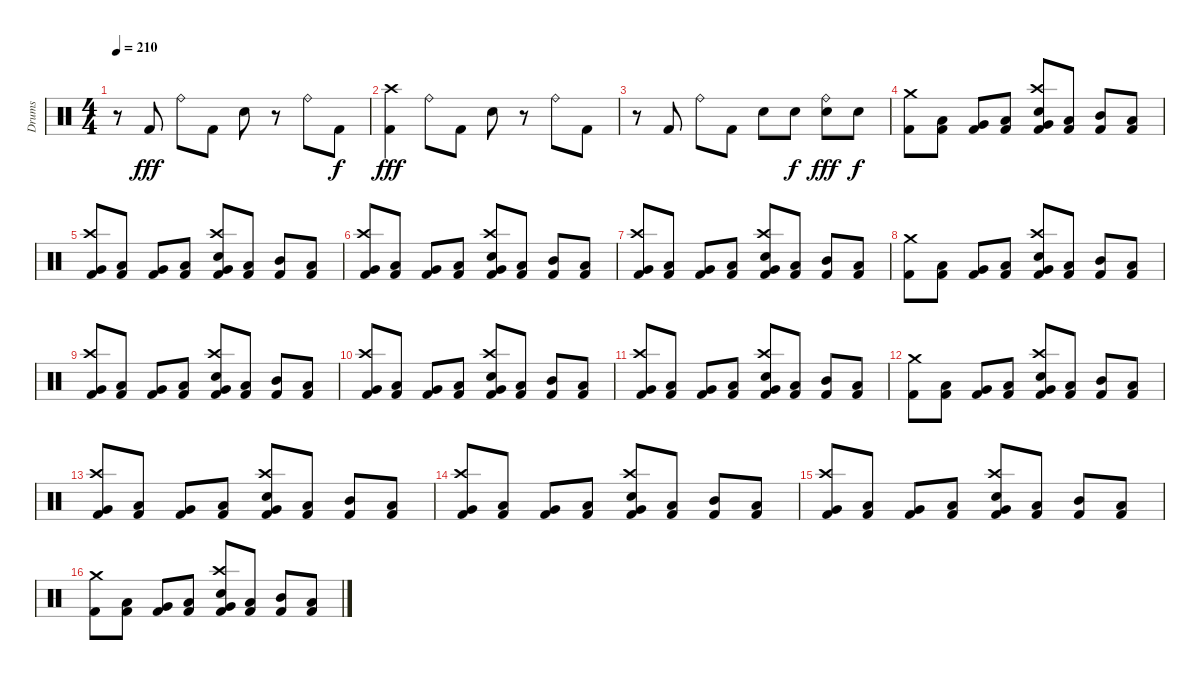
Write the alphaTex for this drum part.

\track ("Drums" "Drums") {instrument percussion}
\staff {score}
\articulation defaults
\ts (4 4)
\tempo 210
\clef neutral
\ks c
r.8{dy fff} "Kick (hit) 2".8 "Ride (bell)".8 "Kick (hit) 2".8 "Electric Snare (hit)".8 r.8 "Ride (bell)".8 "Kick (hit) 2".8{dy f} |
("Crash high (hit)" "Kick (hit) 2").4{dy fff} "Ride (bell)".8 "Kick (hit) 2".8 "Electric Snare (hit)".8 r.8 "Ride (bell)".8 "Kick (hit) 2".8 |
r.8 "Kick (hit) 2".8 "Ride (bell)".8 "Kick (hit) 2".8 "Electric Snare (hit)".8 "Electric Snare (hit)".8{dy f} ("Ride (bell)" "Electric Snare (hit)").8{dy fff} "Electric Snare (hit)".8{dy f} |
("Crash medium (hit)" "Kick (hit) 2").8 ("Low Tom (hit)" "Kick (hit) 2").8 ("Very Low Tom (hit)" "Kick (hit) 2").8 ("Low Floor Tom (hit)" "Kick (hit) 2").8 ("Crash high (hit)" "Very Low Tom (hit)" "Electric Snare (hit)" "Kick (hit) 2").8 ("Low Tom (hit)" "Kick (hit) 2").8 ("Mid Tom (hit)" "Kick (hit) 2").8 ("Low Tom (hit)" "Kick (hit) 2").8 |
("Crash high (hit)" "Very Low Tom (hit)" "Kick (hit) 2").8 ("Low Tom (hit)" "Kick (hit) 2").8 ("Very Low Tom (hit)" "Kick (hit) 2").8 ("Low Floor Tom (hit)" "Kick (hit) 2").8 ("Crash high (hit)" "Very Low Tom (hit)" "Electric Snare (hit)" "Kick (hit) 2").8 ("Low Tom (hit)" "Kick (hit) 2").8 ("Mid Tom (hit)" "Kick (hit) 2").8 ("Low Tom (hit)" "Kick (hit) 2").8 |
("Crash high (hit)" "Very Low Tom (hit)" "Kick (hit) 2").8 ("Low Tom (hit)" "Kick (hit) 2").8 ("Very Low Tom (hit)" "Kick (hit) 2").8 ("Low Floor Tom (hit)" "Kick (hit) 2").8 ("Crash high (hit)" "Very Low Tom (hit)" "Electric Snare (hit)" "Kick (hit) 2").8 ("Low Tom (hit)" "Kick (hit) 2").8 ("Mid Tom (hit)" "Kick (hit) 2").8 ("Low Tom (hit)" "Kick (hit) 2").8 |
("Crash high (hit)" "Very Low Tom (hit)" "Kick (hit) 2").8 ("Low Tom (hit)" "Kick (hit) 2").8 ("Very Low Tom (hit)" "Kick (hit) 2").8 ("Low Floor Tom (hit)" "Kick (hit) 2").8 ("Crash high (hit)" "Very Low Tom (hit)" "Electric Snare (hit)" "Kick (hit) 2").8 ("Low Tom (hit)" "Kick (hit) 2").8 ("Mid Tom (hit)" "Kick (hit) 2").8 ("Low Tom (hit)" "Kick (hit) 2").8 |
("Crash medium (hit)" "Kick (hit) 2").8 ("Low Tom (hit)" "Kick (hit) 2").8 ("Very Low Tom (hit)" "Kick (hit) 2").8 ("Low Floor Tom (hit)" "Kick (hit) 2").8 ("Crash high (hit)" "Very Low Tom (hit)" "Electric Snare (hit)" "Kick (hit) 2").8 ("Low Tom (hit)" "Kick (hit) 2").8 ("Mid Tom (hit)" "Kick (hit) 2").8 ("Low Tom (hit)" "Kick (hit) 2").8 |
("Crash high (hit)" "Very Low Tom (hit)" "Kick (hit) 2").8 ("Low Tom (hit)" "Kick (hit) 2").8 ("Very Low Tom (hit)" "Kick (hit) 2").8 ("Low Floor Tom (hit)" "Kick (hit) 2").8 ("Crash high (hit)" "Very Low Tom (hit)" "Electric Snare (hit)" "Kick (hit) 2").8 ("Low Tom (hit)" "Kick (hit) 2").8 ("Mid Tom (hit)" "Kick (hit) 2").8 ("Low Tom (hit)" "Kick (hit) 2").8 |
("Crash high (hit)" "Very Low Tom (hit)" "Kick (hit) 2").8 ("Low Tom (hit)" "Kick (hit) 2").8 ("Very Low Tom (hit)" "Kick (hit) 2").8 ("Low Floor Tom (hit)" "Kick (hit) 2").8 ("Crash high (hit)" "Very Low Tom (hit)" "Electric Snare (hit)" "Kick (hit) 2").8 ("Low Tom (hit)" "Kick (hit) 2").8 ("Mid Tom (hit)" "Kick (hit) 2").8 ("Low Tom (hit)" "Kick (hit) 2").8 |
("Crash high (hit)" "Very Low Tom (hit)" "Kick (hit) 2").8 ("Low Tom (hit)" "Kick (hit) 2").8 ("Very Low Tom (hit)" "Kick (hit) 2").8 ("Low Floor Tom (hit)" "Kick (hit) 2").8 ("Crash high (hit)" "Very Low Tom (hit)" "Electric Snare (hit)" "Kick (hit) 2").8 ("Low Tom (hit)" "Kick (hit) 2").8 ("Mid Tom (hit)" "Kick (hit) 2").8 ("Low Tom (hit)" "Kick (hit) 2").8 |
("Crash medium (hit)" "Kick (hit) 2").8 ("Low Tom (hit)" "Kick (hit) 2").8 ("Very Low Tom (hit)" "Kick (hit) 2").8 ("Low Floor Tom (hit)" "Kick (hit) 2").8 ("Crash high (hit)" "Very Low Tom (hit)" "Electric Snare (hit)" "Kick (hit) 2").8 ("Low Tom (hit)" "Kick (hit) 2").8 ("Mid Tom (hit)" "Kick (hit) 2").8 ("Low Tom (hit)" "Kick (hit) 2").8 |
("Crash high (hit)" "Very Low Tom (hit)" "Kick (hit) 2").8 ("Low Tom (hit)" "Kick (hit) 2").8 ("Very Low Tom (hit)" "Kick (hit) 2").8 ("Low Floor Tom (hit)" "Kick (hit) 2").8 ("Crash high (hit)" "Very Low Tom (hit)" "Electric Snare (hit)" "Kick (hit) 2").8 ("Low Tom (hit)" "Kick (hit) 2").8 ("Mid Tom (hit)" "Kick (hit) 2").8 ("Low Tom (hit)" "Kick (hit) 2").8 |
("Crash high (hit)" "Very Low Tom (hit)" "Kick (hit) 2").8 ("Low Tom (hit)" "Kick (hit) 2").8 ("Very Low Tom (hit)" "Kick (hit) 2").8 ("Low Floor Tom (hit)" "Kick (hit) 2").8 ("Crash high (hit)" "Very Low Tom (hit)" "Electric Snare (hit)" "Kick (hit) 2").8 ("Low Tom (hit)" "Kick (hit) 2").8 ("Mid Tom (hit)" "Kick (hit) 2").8 ("Low Tom (hit)" "Kick (hit) 2").8 |
("Crash high (hit)" "Very Low Tom (hit)" "Kick (hit) 2").8 ("Low Tom (hit)" "Kick (hit) 2").8 ("Very Low Tom (hit)" "Kick (hit) 2").8 ("Low Floor Tom (hit)" "Kick (hit) 2").8 ("Crash high (hit)" "Very Low Tom (hit)" "Electric Snare (hit)" "Kick (hit) 2").8 ("Low Tom (hit)" "Kick (hit) 2").8 ("Mid Tom (hit)" "Kick (hit) 2").8 ("Low Tom (hit)" "Kick (hit) 2").8 |
("Crash medium (hit)" "Kick (hit) 2").8 ("Low Tom (hit)" "Kick (hit) 2").8 ("Very Low Tom (hit)" "Kick (hit) 2").8 ("Low Floor Tom (hit)" "Kick (hit) 2").8 ("Crash high (hit)" "Very Low Tom (hit)" "Electric Snare (hit)" "Kick (hit) 2").8 ("Low Tom (hit)" "Kick (hit) 2").8 ("Mid Tom (hit)" "Kick (hit) 2").8 ("Low Tom (hit)" "Kick (hit) 2").8
